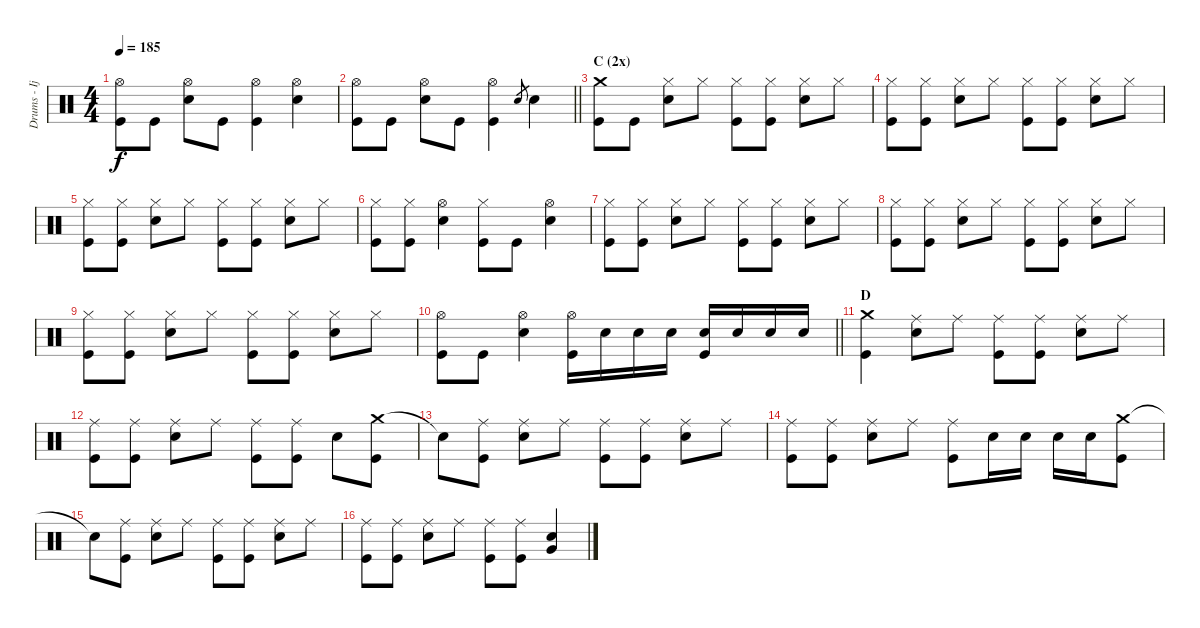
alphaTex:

\track ("Drums - Ijichi" "Drums - Ij") {instrument percussion}
\staff {score}
\articulation defaults
\ts (4 4)
\tempo 185
\clef neutral
\ks c
("Hi-Hat (open)" "Kick (hit)").8{dy f} "Kick (hit)".8 ("Hi-Hat (open)" "Electric Snare (hit)").8 "Kick (hit)".8 ("Hi-Hat (open)" "Kick (hit)").4 ("Hi-Hat (open)" "Electric Snare (hit)").4 |
\barLineRight lightlight
("Hi-Hat (open)" "Kick (hit)").8 "Kick (hit)".8 ("Hi-Hat (open)" "Electric Snare (hit)").8 "Kick (hit)".8 ("Hi-Hat (open)" "Kick (hit)").4 "Electric Snare (hit)".8{gr} "Electric Snare (hit)".4 |
\section ("" "C (2x)")
("Crash medium (hit)" "Kick (hit)").8 "Kick (hit)".8 ("Hi-Hat (closed)" "Electric Snare (hit)").8 "Hi-Hat (closed)".8 ("Hi-Hat (closed)" "Kick (hit)").8 ("Hi-Hat (closed)" "Kick (hit)").8 ("Hi-Hat (closed)" "Electric Snare (hit)").8 "Hi-Hat (closed)".8 |
("Hi-Hat (closed)" "Kick (hit)").8 ("Hi-Hat (closed)" "Kick (hit)").8 ("Hi-Hat (closed)" "Electric Snare (hit)").8 "Hi-Hat (closed)".8 ("Hi-Hat (closed)" "Kick (hit)").8 ("Hi-Hat (closed)" "Kick (hit)").8 ("Hi-Hat (closed)" "Electric Snare (hit)").8 "Hi-Hat (closed)".8 |
("Hi-Hat (closed)" "Kick (hit)").8 ("Hi-Hat (closed)" "Kick (hit)").8 ("Hi-Hat (closed)" "Electric Snare (hit)").8 "Hi-Hat (closed)".8 ("Hi-Hat (closed)" "Kick (hit)").8 ("Hi-Hat (closed)" "Kick (hit)").8 ("Hi-Hat (closed)" "Electric Snare (hit)").8 "Hi-Hat (closed)".8 |
("Hi-Hat (closed)" "Kick (hit)").8 ("Hi-Hat (closed)" "Kick (hit)").8 ("Hi-Hat (open)" "Electric Snare (hit)").4 ("Hi-Hat (closed)" "Kick (hit)").8 "Kick (hit)".8 ("Hi-Hat (open)" "Electric Snare (hit)").4 |
("Hi-Hat (closed)" "Kick (hit)").8 ("Hi-Hat (closed)" "Kick (hit)").8 ("Hi-Hat (closed)" "Electric Snare (hit)").8 "Hi-Hat (closed)".8 ("Hi-Hat (closed)" "Kick (hit)").8 ("Hi-Hat (closed)" "Kick (hit)").8 ("Hi-Hat (closed)" "Electric Snare (hit)").8 "Hi-Hat (closed)".8 |
("Hi-Hat (closed)" "Kick (hit)").8 ("Hi-Hat (closed)" "Kick (hit)").8 ("Hi-Hat (closed)" "Electric Snare (hit)").8 "Hi-Hat (closed)".8 ("Hi-Hat (closed)" "Kick (hit)").8 ("Hi-Hat (closed)" "Kick (hit)").8 ("Hi-Hat (closed)" "Electric Snare (hit)").8 "Hi-Hat (closed)".8 |
("Hi-Hat (closed)" "Kick (hit)").8 ("Hi-Hat (closed)" "Kick (hit)").8 ("Hi-Hat (closed)" "Electric Snare (hit)").8 "Hi-Hat (closed)".8 ("Hi-Hat (closed)" "Kick (hit)").8 ("Hi-Hat (closed)" "Kick (hit)").8 ("Hi-Hat (closed)" "Electric Snare (hit)").8 "Hi-Hat (closed)".8 |
\barLineRight lightlight
("Hi-Hat (open)" "Kick (hit)").8 "Kick (hit)".8 ("Hi-Hat (open)" "Electric Snare (hit)").4 ("Hi-Hat (open)" "Kick (hit)").16 "Electric Snare (hit)".16 "Electric Snare (hit)".16 "Electric Snare (hit)".16 ("Electric Snare (hit)" "Kick (hit)").16 "Electric Snare (hit)".16 "Electric Snare (hit)".16 "Electric Snare (hit)".16 |
\section ("" "D")
("Crash medium (hit)" "Kick (hit)").4 ("Ride (middle)" "Electric Snare (hit)").8 "Ride (middle)".8 ("Ride (middle)" "Kick (hit)").8 ("Ride (middle)" "Kick (hit)").8 ("Ride (middle)" "Electric Snare (hit)").8 "Ride (middle)".8 |
("Ride (middle)" "Kick (hit)").8 ("Ride (middle)" "Kick (hit)").8 ("Ride (middle)" "Electric Snare (hit)").8 "Ride (middle)".8 ("Ride (middle)" "Kick (hit)").8 ("Ride (middle)" "Kick (hit)").8 "Electric Snare (hit)".8 ("Crash medium (hit)" "Kick (hit)").8 |
"Snare (hit)"{t}.8 ("Ride (middle)" "Kick (hit)").8 ("Ride (middle)" "Electric Snare (hit)").8 "Ride (middle)".8 ("Ride (middle)" "Kick (hit)").8 ("Ride (middle)" "Kick (hit)").8 ("Ride (middle)" "Electric Snare (hit)").8 "Ride (middle)".8 |
("Ride (middle)" "Kick (hit)").8 ("Ride (middle)" "Kick (hit)").8 ("Ride (middle)" "Electric Snare (hit)").8 "Ride (middle)".8 ("Ride (middle)" "Kick (hit)").8 "Electric Snare (hit)".16 "Electric Snare (hit)".16 "Electric Snare (hit)".16 "Electric Snare (hit)".16 ("Crash medium (hit)" "Kick (hit)").8 |
"Snare (hit)"{t}.8 ("Ride (middle)" "Kick (hit)").8 ("Ride (middle)" "Electric Snare (hit)").8 "Ride (middle)".8 ("Ride (middle)" "Kick (hit)").8 ("Ride (middle)" "Kick (hit)").8 ("Ride (middle)" "Electric Snare (hit)").8 "Ride (middle)".8 |
("Ride (middle)" "Kick (hit)").8 ("Ride (middle)" "Kick (hit)").8 ("Ride (middle)" "Electric Snare (hit)").8 "Ride (middle)".8 ("Ride (middle)" "Kick (hit)").8 ("Ride (middle)" "Kick (hit)").8 ("Electric Snare (hit)" "Very Low Tom (hit)").4
